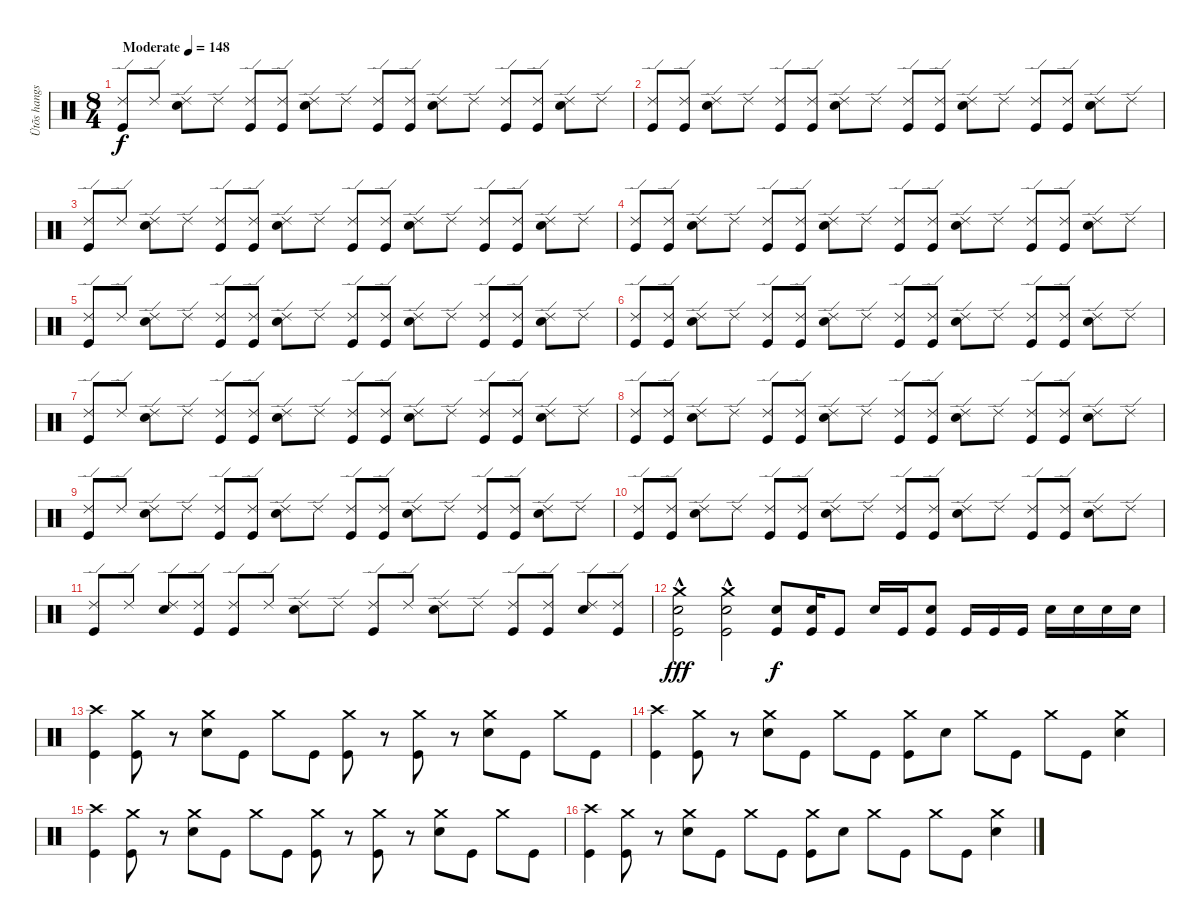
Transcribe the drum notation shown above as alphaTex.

\track ("Ütõs hangszer" "Ütõs hangs") {instrument percussion}
\staff {score}
\articulation defaults
\ts (8 4)
\tempo (148 "Moderate")
\clef neutral
\ks c
("Ride (edge) 2" "Kick (hit)").8{dy f} "Ride (edge) 2".8 ("Ride (edge) 2" "Electric Snare (hit)").8 "Ride (edge) 2".8 ("Ride (edge) 2" "Kick (hit)").8 ("Ride (edge) 2" "Kick (hit)").8 ("Ride (edge) 2" "Electric Snare (hit)").8 "Ride (edge) 2".8 ("Ride (edge) 2" "Kick (hit)").8 ("Ride (edge) 2" "Kick (hit)").8 ("Ride (edge) 2" "Electric Snare (hit)").8 "Ride (edge) 2".8 ("Ride (edge) 2" "Kick (hit)").8 ("Ride (edge) 2" "Kick (hit)").8 ("Ride (edge) 2" "Electric Snare (hit)").8 "Ride (edge) 2".8 |
("Ride (edge) 2" "Kick (hit)").8 ("Ride (edge) 2" "Kick (hit)").8 ("Ride (edge) 2" "Electric Snare (hit)").8 "Ride (edge) 2".8 ("Ride (edge) 2" "Kick (hit)").8 ("Ride (edge) 2" "Kick (hit)").8 ("Ride (edge) 2" "Electric Snare (hit)").8 "Ride (edge) 2".8 ("Ride (edge) 2" "Kick (hit)").8 ("Ride (edge) 2" "Kick (hit)").8 ("Ride (edge) 2" "Electric Snare (hit)").8 "Ride (edge) 2".8 ("Ride (edge) 2" "Kick (hit)").8 ("Ride (edge) 2" "Kick (hit)").8 ("Ride (edge) 2" "Electric Snare (hit)").8 "Ride (edge) 2".8 |
("Ride (edge) 2" "Kick (hit)").8 "Ride (edge) 2".8 ("Ride (edge) 2" "Electric Snare (hit)").8 "Ride (edge) 2".8 ("Ride (edge) 2" "Kick (hit)").8 ("Ride (edge) 2" "Kick (hit)").8 ("Ride (edge) 2" "Electric Snare (hit)").8 "Ride (edge) 2".8 ("Ride (edge) 2" "Kick (hit)").8 ("Ride (edge) 2" "Kick (hit)").8 ("Ride (edge) 2" "Electric Snare (hit)").8 "Ride (edge) 2".8 ("Ride (edge) 2" "Kick (hit)").8 ("Ride (edge) 2" "Kick (hit)").8 ("Ride (edge) 2" "Electric Snare (hit)").8 "Ride (edge) 2".8 |
("Ride (edge) 2" "Kick (hit)").8 ("Ride (edge) 2" "Kick (hit)").8 ("Ride (edge) 2" "Electric Snare (hit)").8 "Ride (edge) 2".8 ("Ride (edge) 2" "Kick (hit)").8 ("Ride (edge) 2" "Kick (hit)").8 ("Ride (edge) 2" "Electric Snare (hit)").8 "Ride (edge) 2".8 ("Ride (edge) 2" "Kick (hit)").8 ("Ride (edge) 2" "Kick (hit)").8 ("Ride (edge) 2" "Electric Snare (hit)").8 "Ride (edge) 2".8 ("Ride (edge) 2" "Kick (hit)").8 ("Ride (edge) 2" "Kick (hit)").8 ("Ride (edge) 2" "Electric Snare (hit)").8 "Ride (edge) 2".8 |
("Ride (edge) 2" "Kick (hit)").8 "Ride (edge) 2".8 ("Ride (edge) 2" "Electric Snare (hit)").8 "Ride (edge) 2".8 ("Ride (edge) 2" "Kick (hit)").8 ("Ride (edge) 2" "Kick (hit)").8 ("Ride (edge) 2" "Electric Snare (hit)").8 "Ride (edge) 2".8 ("Ride (edge) 2" "Kick (hit)").8 ("Ride (edge) 2" "Kick (hit)").8 ("Ride (edge) 2" "Electric Snare (hit)").8 "Ride (edge) 2".8 ("Ride (edge) 2" "Kick (hit)").8 ("Ride (edge) 2" "Kick (hit)").8 ("Ride (edge) 2" "Electric Snare (hit)").8 "Ride (edge) 2".8 |
("Ride (edge) 2" "Kick (hit)").8 ("Ride (edge) 2" "Kick (hit)").8 ("Ride (edge) 2" "Electric Snare (hit)").8 "Ride (edge) 2".8 ("Ride (edge) 2" "Kick (hit)").8 ("Ride (edge) 2" "Kick (hit)").8 ("Ride (edge) 2" "Electric Snare (hit)").8 "Ride (edge) 2".8 ("Ride (edge) 2" "Kick (hit)").8 ("Ride (edge) 2" "Kick (hit)").8 ("Ride (edge) 2" "Electric Snare (hit)").8 "Ride (edge) 2".8 ("Ride (edge) 2" "Kick (hit)").8 ("Ride (edge) 2" "Kick (hit)").8 ("Ride (edge) 2" "Electric Snare (hit)").8 "Ride (edge) 2".8 |
("Ride (edge) 2" "Kick (hit)").8 "Ride (edge) 2".8 ("Ride (edge) 2" "Electric Snare (hit)").8 "Ride (edge) 2".8 ("Ride (edge) 2" "Kick (hit)").8 ("Ride (edge) 2" "Kick (hit)").8 ("Ride (edge) 2" "Electric Snare (hit)").8 "Ride (edge) 2".8 ("Ride (edge) 2" "Kick (hit)").8 ("Ride (edge) 2" "Kick (hit)").8 ("Ride (edge) 2" "Electric Snare (hit)").8 "Ride (edge) 2".8 ("Ride (edge) 2" "Kick (hit)").8 ("Ride (edge) 2" "Kick (hit)").8 ("Ride (edge) 2" "Electric Snare (hit)").8 "Ride (edge) 2".8 |
("Ride (edge) 2" "Kick (hit)").8 ("Ride (edge) 2" "Kick (hit)").8 ("Ride (edge) 2" "Electric Snare (hit)").8 "Ride (edge) 2".8 ("Ride (edge) 2" "Kick (hit)").8 ("Ride (edge) 2" "Kick (hit)").8 ("Ride (edge) 2" "Electric Snare (hit)").8 "Ride (edge) 2".8 ("Ride (edge) 2" "Kick (hit)").8 ("Ride (edge) 2" "Kick (hit)").8 ("Ride (edge) 2" "Electric Snare (hit)").8 "Ride (edge) 2".8 ("Ride (edge) 2" "Kick (hit)").8 ("Ride (edge) 2" "Kick (hit)").8 ("Ride (edge) 2" "Electric Snare (hit)").8 "Ride (edge) 2".8 |
("Ride (edge) 2" "Kick (hit)").8 "Ride (edge) 2".8 ("Ride (edge) 2" "Electric Snare (hit)").8 "Ride (edge) 2".8 ("Ride (edge) 2" "Kick (hit)").8 ("Ride (edge) 2" "Kick (hit)").8 ("Ride (edge) 2" "Electric Snare (hit)").8 "Ride (edge) 2".8 ("Ride (edge) 2" "Kick (hit)").8 ("Ride (edge) 2" "Kick (hit)").8 ("Ride (edge) 2" "Electric Snare (hit)").8 "Ride (edge) 2".8 ("Ride (edge) 2" "Kick (hit)").8 ("Ride (edge) 2" "Kick (hit)").8 ("Ride (edge) 2" "Electric Snare (hit)").8 "Ride (edge) 2".8 |
("Ride (edge) 2" "Kick (hit)").8 ("Ride (edge) 2" "Kick (hit)").8 ("Ride (edge) 2" "Electric Snare (hit)").8 "Ride (edge) 2".8 ("Ride (edge) 2" "Kick (hit)").8 ("Ride (edge) 2" "Kick (hit)").8 ("Ride (edge) 2" "Electric Snare (hit)").8 "Ride (edge) 2".8 ("Ride (edge) 2" "Kick (hit)").8 ("Ride (edge) 2" "Kick (hit)").8 ("Ride (edge) 2" "Electric Snare (hit)").8 "Ride (edge) 2".8 ("Ride (edge) 2" "Kick (hit)").8 ("Ride (edge) 2" "Kick (hit)").8 ("Ride (edge) 2" "Electric Snare (hit)").8 "Ride (edge) 2".8 |
("Ride (edge) 2" "Kick (hit)").8 "Ride (edge) 2".8 ("Ride (edge) 2" "Electric Snare (hit)").8 ("Ride (edge) 2" "Kick (hit)").8 ("Ride (edge) 2" "Kick (hit)").8 "Ride (edge) 2".8 ("Ride (edge) 2" "Electric Snare (hit)").8 "Ride (edge) 2".8 ("Ride (edge) 2" "Kick (hit)").8 "Ride (edge) 2".8 ("Ride (edge) 2" "Electric Snare (hit)").8 "Ride (edge) 2".8 ("Ride (edge) 2" "Kick (hit)").8 ("Ride (edge) 2" "Kick (hit)").8 ("Ride (edge) 2" "Electric Snare (hit)").8 ("Ride (edge) 2" "Kick (hit)").8 |
("Crash medium (hit)"{hac} "Electric Snare (hit)" "Kick (hit)").2{dy fff} ("Crash medium (hit)"{hac} "Electric Snare (hit)" "Kick (hit)").2 ("Electric Snare (hit)" "Kick (hit)").8{dy f} ("Electric Snare (hit)" "Kick (hit)").16 "Kick (hit)".8 "Electric Snare (hit)".16 "Kick (hit)".16 ("Electric Snare (hit)" "Kick (hit)").8 "Kick (hit)".16 "Kick (hit)".16 "Kick (hit)".16 "Electric Snare (hit)".16 "Electric Snare (hit)".16 "Electric Snare (hit)".16 "Electric Snare (hit)".16 |
("Crash high (hit)" "Kick (hit)").4 ("Crash medium (hit)" "Kick (hit)").8 r.8 ("Crash medium (hit)" "Electric Snare (hit)").8 "Kick (hit)".8 "Crash medium (hit)".8 "Kick (hit)".8 ("Crash medium (hit)" "Kick (hit)").8 r.8 ("Crash medium (hit)" "Kick (hit)").8 r.8 ("Crash medium (hit)" "Electric Snare (hit)").8 "Kick (hit)".8 "Crash medium (hit)".8 "Kick (hit)".8 |
("Crash high (hit)" "Kick (hit)").4 ("Crash medium (hit)" "Kick (hit)").8 r.8 ("Crash medium (hit)" "Electric Snare (hit)").8 "Kick (hit)".8 "Crash medium (hit)".8 "Kick (hit)".8 ("Crash medium (hit)" "Kick (hit)").8 "Electric Snare (hit)".8 "Crash medium (hit)".8 "Kick (hit)".8 "Crash medium (hit)".8 "Kick (hit)".8 ("Crash medium (hit)" "Electric Snare (hit)").4 |
("Crash high (hit)" "Kick (hit)").4 ("Crash medium (hit)" "Kick (hit)").8 r.8 ("Crash medium (hit)" "Electric Snare (hit)").8 "Kick (hit)".8 "Crash medium (hit)".8 "Kick (hit)".8 ("Crash medium (hit)" "Kick (hit)").8 r.8 ("Crash medium (hit)" "Kick (hit)").8 r.8 ("Crash medium (hit)" "Electric Snare (hit)").8 "Kick (hit)".8 "Crash medium (hit)".8 "Kick (hit)".8 |
("Crash high (hit)" "Kick (hit)").4 ("Crash medium (hit)" "Kick (hit)").8 r.8 ("Crash medium (hit)" "Electric Snare (hit)").8 "Kick (hit)".8 "Crash medium (hit)".8 "Kick (hit)".8 ("Crash medium (hit)" "Kick (hit)").8 "Electric Snare (hit)".8 "Crash medium (hit)".8 "Kick (hit)".8 "Crash medium (hit)".8 "Kick (hit)".8 ("Crash medium (hit)" "Electric Snare (hit)").4
